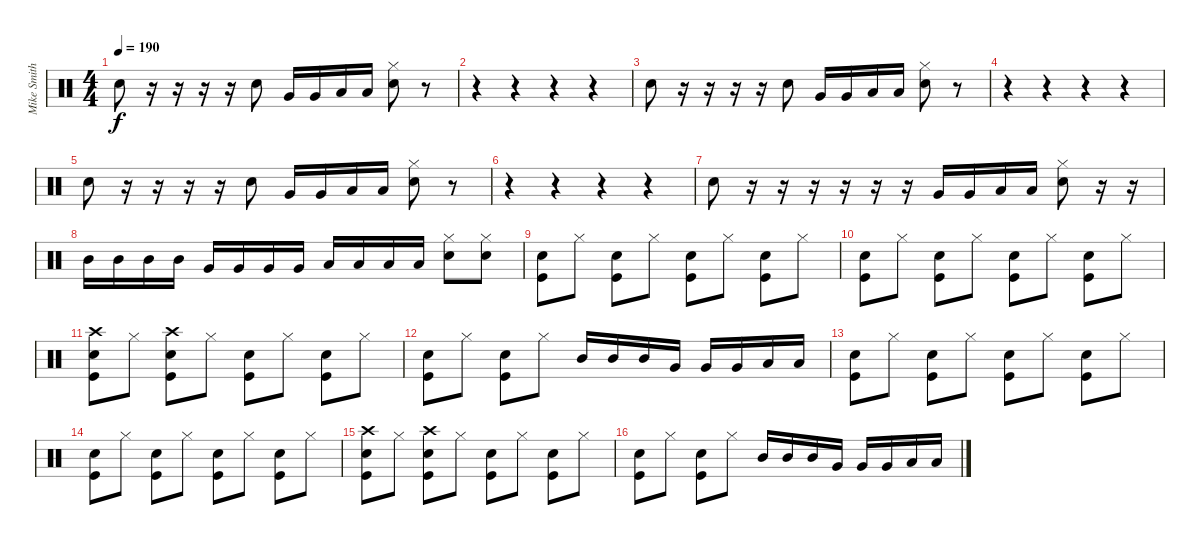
\track ("Mike Smith" "Mike Smith") {instrument percussion}
\staff
\articulation defaults
\ts (4 4)
\tempo 190
\clef neutral
\ks c "Snare (hit) 2".8{dy f}
r.16 r.16 r.16 r.16 "Snare (hit) 2".8 "Very Low Tom (hit)".16 "Very Low Tom (hit)".16 "Low Floor Tom (hit)".16 "Low Floor Tom (hit)".16 ("Hi-Hat (closed)" "Snare (hit) 2").8 r.8 |
r.4 r.4 r.4 r.4 |
"Snare (hit) 2".8 r.16 r.16 r.16 r.16 "Snare (hit) 2".8 "Very Low Tom (hit)".16 "Very Low Tom (hit)".16 "Low Floor Tom (hit)".16 "Low Floor Tom (hit)".16 ("Hi-Hat (closed)" "Snare (hit) 2").8 r.8 |
r.4 r.4 r.4 r.4 |
"Snare (hit) 2".8 r.16 r.16 r.16 r.16 "Snare (hit) 2".8 "Very Low Tom (hit)".16 "Very Low Tom (hit)".16 "Low Floor Tom (hit)".16 "Low Floor Tom (hit)".16 ("Hi-Hat (closed)" "Snare (hit) 2").8 r.8 |
r.4 r.4 r.4 r.4 |
"Snare (hit) 2".8 r.16 r.16 r.16 r.16 r.16 r.16 "Very Low Tom (hit)".16 "Very Low Tom (hit)".16 "Low Floor Tom (hit)".16 "Low Floor Tom (hit)".16 ("Hi-Hat (closed)" "Snare (hit) 2").8 r.16 r.16 |
"Mid Tom (hit)".16 "Mid Tom (hit)".16 "Mid Tom (hit)".16 "Mid Tom (hit)".16 "Very Low Tom (hit)".16 "Very Low Tom (hit)".16 "Very Low Tom (hit)".16 "Very Low Tom (hit)".16 "Low Floor Tom (hit)".16 "Low Floor Tom (hit)".16 "Low Floor Tom (hit)".16 "Low Floor Tom (hit)".16 ("Hi-Hat (closed)" "Snare (hit) 2").8 ("Hi-Hat (closed)" "Snare (hit) 2").8 |
("Snare (hit) 2" "Kick (hit)").8 "Hi-Hat (closed)".8 ("Snare (hit) 2" "Kick (hit)").8 "Hi-Hat (closed)".8 ("Snare (hit) 2" "Kick (hit)").8 "Hi-Hat (closed)".8 ("Snare (hit) 2" "Kick (hit)").8 "Hi-Hat (closed)".8 |
("Snare (hit) 2" "Kick (hit)").8 "Hi-Hat (closed)".8 ("Snare (hit) 2" "Kick (hit)").8 "Hi-Hat (closed)".8 ("Snare (hit) 2" "Kick (hit)").8 "Hi-Hat (closed)".8 ("Snare (hit) 2" "Kick (hit)").8 "Hi-Hat (closed)".8 |
("Crash high (hit)" "Snare (hit) 2" "Kick (hit)").8 "Hi-Hat (closed)".8 ("Crash high (hit)" "Snare (hit) 2" "Kick (hit)").8 "Hi-Hat (closed)".8 ("Snare (hit) 2" "Kick (hit)").8 "Hi-Hat (closed)".8 ("Snare (hit) 2" "Kick (hit)").8 "Hi-Hat (closed)".8 |
("Snare (hit) 2" "Kick (hit)").8 "Hi-Hat (closed)".8 ("Snare (hit) 2" "Kick (hit)").8 "Hi-Hat (closed)".8 "Mid Tom (hit)".16 "Mid Tom (hit)".16 "Mid Tom (hit)".16 "Very Low Tom (hit)".16 "Very Low Tom (hit)".16 "Very Low Tom (hit)".16 "Low Floor Tom (hit)".16 "Low Floor Tom (hit)".16 |
("Snare (hit) 2" "Kick (hit)").8 "Hi-Hat (closed)".8 ("Snare (hit) 2" "Kick (hit)").8 "Hi-Hat (closed)".8 ("Snare (hit) 2" "Kick (hit)").8 "Hi-Hat (closed)".8 ("Snare (hit) 2" "Kick (hit)").8 "Hi-Hat (closed)".8 |
("Snare (hit) 2" "Kick (hit)").8 "Hi-Hat (closed)".8 ("Snare (hit) 2" "Kick (hit)").8 "Hi-Hat (closed)".8 ("Snare (hit) 2" "Kick (hit)").8 "Hi-Hat (closed)".8 ("Snare (hit) 2" "Kick (hit)").8 "Hi-Hat (closed)".8 |
("Crash high (hit)" "Snare (hit) 2" "Kick (hit)").8 "Hi-Hat (closed)".8 ("Crash high (hit)" "Snare (hit) 2" "Kick (hit)").8 "Hi-Hat (closed)".8 ("Snare (hit) 2" "Kick (hit)").8 "Hi-Hat (closed)".8 ("Snare (hit) 2" "Kick (hit)").8 "Hi-Hat (closed)".8 |
("Snare (hit) 2" "Kick (hit)").8 "Hi-Hat (closed)".8 ("Snare (hit) 2" "Kick (hit)").8 "Hi-Hat (closed)".8 "Mid Tom (hit)".16 "Mid Tom (hit)".16 "Mid Tom (hit)".16 "Very Low Tom (hit)".16 "Very Low Tom (hit)".16 "Very Low Tom (hit)".16 "Low Floor Tom (hit)".16 "Low Floor Tom (hit)".16
